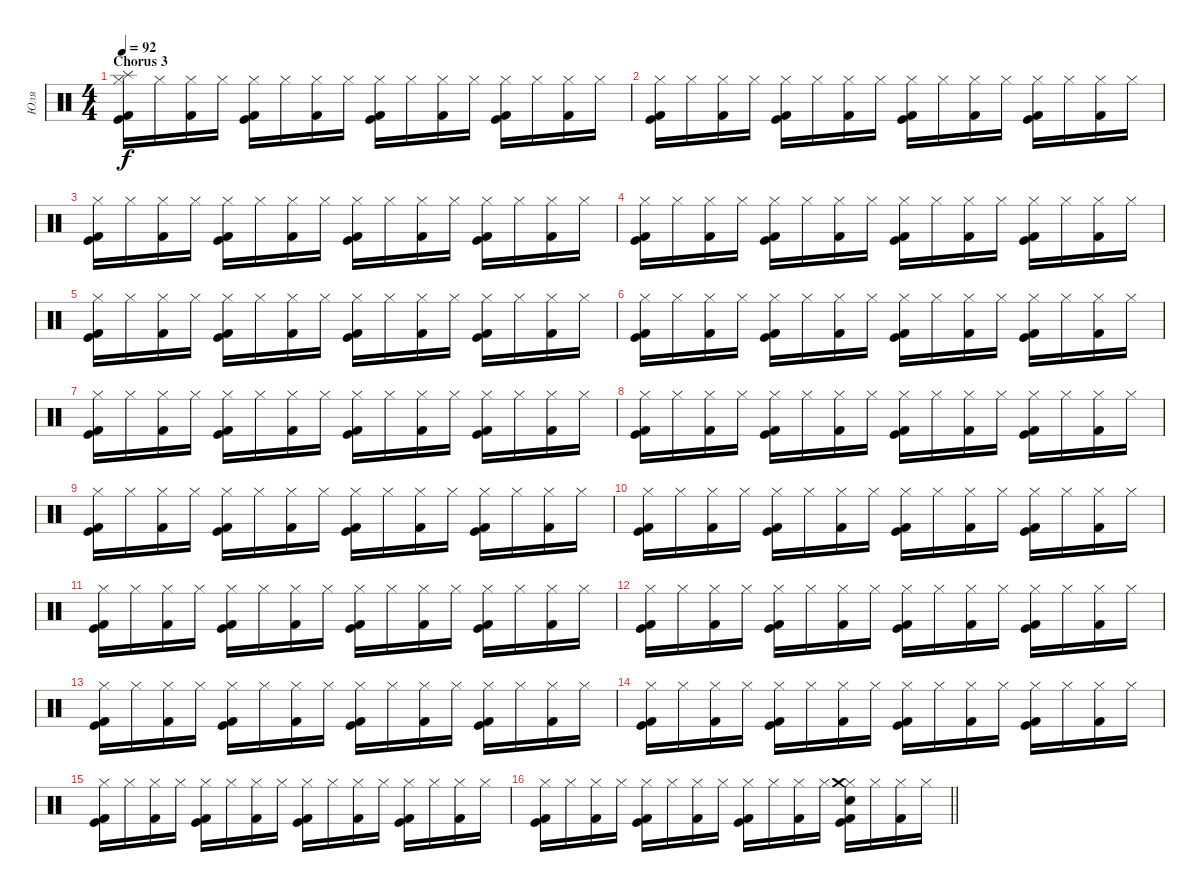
\track ("Юля" "Юля") {instrument percussion}
\staff {score}
\articulation defaults
\ts (4 4)
\section ("" "Chorus 3")
\tempo 92
\clef neutral
\ks c
("Hi-Hat (closed)" "Splash (hit)" "Kick (hit)" "Kick (hit) 2").16{dy f} "Hi-Hat (closed)".16 ("Hi-Hat (closed)" "Kick (hit) 2").16 "Hi-Hat (closed)".16 ("Hi-Hat (closed)" "Kick (hit)" "Kick (hit) 2").16 "Hi-Hat (closed)".16 ("Hi-Hat (closed)" "Kick (hit) 2").16 "Hi-Hat (closed)".16 ("Hi-Hat (closed)" "Kick (hit)" "Kick (hit) 2").16 "Hi-Hat (closed)".16 ("Hi-Hat (closed)" "Kick (hit) 2").16 "Hi-Hat (closed)".16 ("Hi-Hat (closed)" "Kick (hit)" "Kick (hit) 2").16 "Hi-Hat (closed)".16 ("Hi-Hat (closed)" "Kick (hit) 2").16 "Hi-Hat (closed)".16 |
("Hi-Hat (closed)" "Kick (hit)" "Kick (hit) 2").16 "Hi-Hat (closed)".16 ("Hi-Hat (closed)" "Kick (hit) 2").16 "Hi-Hat (closed)".16 ("Hi-Hat (closed)" "Kick (hit)" "Kick (hit) 2").16 "Hi-Hat (closed)".16 ("Hi-Hat (closed)" "Kick (hit) 2").16 "Hi-Hat (closed)".16 ("Hi-Hat (closed)" "Kick (hit)" "Kick (hit) 2").16 "Hi-Hat (closed)".16 ("Hi-Hat (closed)" "Kick (hit) 2").16 "Hi-Hat (closed)".16 ("Hi-Hat (closed)" "Kick (hit)" "Kick (hit) 2").16 "Hi-Hat (closed)".16 ("Hi-Hat (closed)" "Kick (hit) 2").16 "Hi-Hat (closed)".16 |
("Hi-Hat (closed)" "Kick (hit)" "Kick (hit) 2").16 "Hi-Hat (closed)".16 ("Hi-Hat (closed)" "Kick (hit) 2").16 "Hi-Hat (closed)".16 ("Hi-Hat (closed)" "Kick (hit)" "Kick (hit) 2").16 "Hi-Hat (closed)".16 ("Hi-Hat (closed)" "Kick (hit) 2").16 "Hi-Hat (closed)".16 ("Hi-Hat (closed)" "Kick (hit)" "Kick (hit) 2").16 "Hi-Hat (closed)".16 ("Hi-Hat (closed)" "Kick (hit) 2").16 "Hi-Hat (closed)".16 ("Hi-Hat (closed)" "Kick (hit)" "Kick (hit) 2").16 "Hi-Hat (closed)".16 ("Hi-Hat (closed)" "Kick (hit) 2").16 "Hi-Hat (closed)".16 |
("Hi-Hat (closed)" "Kick (hit)" "Kick (hit) 2").16 "Hi-Hat (closed)".16 ("Hi-Hat (closed)" "Kick (hit) 2").16 "Hi-Hat (closed)".16 ("Hi-Hat (closed)" "Kick (hit)" "Kick (hit) 2").16 "Hi-Hat (closed)".16 ("Hi-Hat (closed)" "Kick (hit) 2").16 "Hi-Hat (closed)".16 ("Hi-Hat (closed)" "Kick (hit)" "Kick (hit) 2").16 "Hi-Hat (closed)".16 ("Hi-Hat (closed)" "Kick (hit) 2").16 "Hi-Hat (closed)".16 ("Hi-Hat (closed)" "Kick (hit)" "Kick (hit) 2").16 "Hi-Hat (closed)".16 ("Hi-Hat (closed)" "Kick (hit) 2").16 "Hi-Hat (closed)".16 |
("Hi-Hat (closed)" "Kick (hit)" "Kick (hit) 2").16 "Hi-Hat (closed)".16 ("Hi-Hat (closed)" "Kick (hit) 2").16 "Hi-Hat (closed)".16 ("Hi-Hat (closed)" "Kick (hit)" "Kick (hit) 2").16 "Hi-Hat (closed)".16 ("Hi-Hat (closed)" "Kick (hit) 2").16 "Hi-Hat (closed)".16 ("Hi-Hat (closed)" "Kick (hit)" "Kick (hit) 2").16 "Hi-Hat (closed)".16 ("Hi-Hat (closed)" "Kick (hit) 2").16 "Hi-Hat (closed)".16 ("Hi-Hat (closed)" "Kick (hit)" "Kick (hit) 2").16 "Hi-Hat (closed)".16 ("Hi-Hat (closed)" "Kick (hit) 2").16 "Hi-Hat (closed)".16 |
("Hi-Hat (closed)" "Kick (hit)" "Kick (hit) 2").16 "Hi-Hat (closed)".16 ("Hi-Hat (closed)" "Kick (hit) 2").16 "Hi-Hat (closed)".16 ("Hi-Hat (closed)" "Kick (hit)" "Kick (hit) 2").16 "Hi-Hat (closed)".16 ("Hi-Hat (closed)" "Kick (hit) 2").16 "Hi-Hat (closed)".16 ("Hi-Hat (closed)" "Kick (hit)" "Kick (hit) 2").16 "Hi-Hat (closed)".16 ("Hi-Hat (closed)" "Kick (hit) 2").16 "Hi-Hat (closed)".16 ("Hi-Hat (closed)" "Kick (hit)" "Kick (hit) 2").16 "Hi-Hat (closed)".16 ("Hi-Hat (closed)" "Kick (hit) 2").16 "Hi-Hat (closed)".16 |
("Hi-Hat (closed)" "Kick (hit)" "Kick (hit) 2").16 "Hi-Hat (closed)".16 ("Hi-Hat (closed)" "Kick (hit) 2").16 "Hi-Hat (closed)".16 ("Hi-Hat (closed)" "Kick (hit)" "Kick (hit) 2").16 "Hi-Hat (closed)".16 ("Hi-Hat (closed)" "Kick (hit) 2").16 "Hi-Hat (closed)".16 ("Hi-Hat (closed)" "Kick (hit)" "Kick (hit) 2").16 "Hi-Hat (closed)".16 ("Hi-Hat (closed)" "Kick (hit) 2").16 "Hi-Hat (closed)".16 ("Hi-Hat (closed)" "Kick (hit)" "Kick (hit) 2").16 "Hi-Hat (closed)".16 ("Hi-Hat (closed)" "Kick (hit) 2").16 "Hi-Hat (closed)".16 |
("Hi-Hat (closed)" "Kick (hit)" "Kick (hit) 2").16 "Hi-Hat (closed)".16 ("Hi-Hat (closed)" "Kick (hit) 2").16 "Hi-Hat (closed)".16 ("Hi-Hat (closed)" "Kick (hit)" "Kick (hit) 2").16 "Hi-Hat (closed)".16 ("Hi-Hat (closed)" "Kick (hit) 2").16 "Hi-Hat (closed)".16 ("Hi-Hat (closed)" "Kick (hit)" "Kick (hit) 2").16 "Hi-Hat (closed)".16 ("Hi-Hat (closed)" "Kick (hit) 2").16 "Hi-Hat (closed)".16 ("Hi-Hat (closed)" "Kick (hit)" "Kick (hit) 2").16 "Hi-Hat (closed)".16 ("Hi-Hat (closed)" "Kick (hit) 2").16 "Hi-Hat (closed)".16 |
("Hi-Hat (closed)" "Kick (hit)" "Kick (hit) 2").16 "Hi-Hat (closed)".16 ("Hi-Hat (closed)" "Kick (hit) 2").16 "Hi-Hat (closed)".16 ("Hi-Hat (closed)" "Kick (hit)" "Kick (hit) 2").16 "Hi-Hat (closed)".16 ("Hi-Hat (closed)" "Kick (hit) 2").16 "Hi-Hat (closed)".16 ("Hi-Hat (closed)" "Kick (hit)" "Kick (hit) 2").16 "Hi-Hat (closed)".16 ("Hi-Hat (closed)" "Kick (hit) 2").16 "Hi-Hat (closed)".16 ("Hi-Hat (closed)" "Kick (hit)" "Kick (hit) 2").16 "Hi-Hat (closed)".16 ("Hi-Hat (closed)" "Kick (hit) 2").16 "Hi-Hat (closed)".16 |
("Hi-Hat (closed)" "Kick (hit)" "Kick (hit) 2").16 "Hi-Hat (closed)".16 ("Hi-Hat (closed)" "Kick (hit) 2").16 "Hi-Hat (closed)".16 ("Hi-Hat (closed)" "Kick (hit)" "Kick (hit) 2").16 "Hi-Hat (closed)".16 ("Hi-Hat (closed)" "Kick (hit) 2").16 "Hi-Hat (closed)".16 ("Hi-Hat (closed)" "Kick (hit)" "Kick (hit) 2").16 "Hi-Hat (closed)".16 ("Hi-Hat (closed)" "Kick (hit) 2").16 "Hi-Hat (closed)".16 ("Hi-Hat (closed)" "Kick (hit)" "Kick (hit) 2").16 "Hi-Hat (closed)".16 ("Hi-Hat (closed)" "Kick (hit) 2").16 "Hi-Hat (closed)".16 |
("Hi-Hat (closed)" "Kick (hit)" "Kick (hit) 2").16 "Hi-Hat (closed)".16 ("Hi-Hat (closed)" "Kick (hit) 2").16 "Hi-Hat (closed)".16 ("Hi-Hat (closed)" "Kick (hit)" "Kick (hit) 2").16 "Hi-Hat (closed)".16 ("Hi-Hat (closed)" "Kick (hit) 2").16 "Hi-Hat (closed)".16 ("Hi-Hat (closed)" "Kick (hit)" "Kick (hit) 2").16 "Hi-Hat (closed)".16 ("Hi-Hat (closed)" "Kick (hit) 2").16 "Hi-Hat (closed)".16 ("Hi-Hat (closed)" "Kick (hit)" "Kick (hit) 2").16 "Hi-Hat (closed)".16 ("Hi-Hat (closed)" "Kick (hit) 2").16 "Hi-Hat (closed)".16 |
("Hi-Hat (closed)" "Kick (hit)" "Kick (hit) 2").16 "Hi-Hat (closed)".16 ("Hi-Hat (closed)" "Kick (hit) 2").16 "Hi-Hat (closed)".16 ("Hi-Hat (closed)" "Kick (hit)" "Kick (hit) 2").16 "Hi-Hat (closed)".16 ("Hi-Hat (closed)" "Kick (hit) 2").16 "Hi-Hat (closed)".16 ("Hi-Hat (closed)" "Kick (hit)" "Kick (hit) 2").16 "Hi-Hat (closed)".16 ("Hi-Hat (closed)" "Kick (hit) 2").16 "Hi-Hat (closed)".16 ("Hi-Hat (closed)" "Kick (hit)" "Kick (hit) 2").16 "Hi-Hat (closed)".16 ("Hi-Hat (closed)" "Kick (hit) 2").16 "Hi-Hat (closed)".16 |
("Hi-Hat (closed)" "Kick (hit)" "Kick (hit) 2").16 "Hi-Hat (closed)".16 ("Hi-Hat (closed)" "Kick (hit) 2").16 "Hi-Hat (closed)".16 ("Hi-Hat (closed)" "Kick (hit)" "Kick (hit) 2").16 "Hi-Hat (closed)".16 ("Hi-Hat (closed)" "Kick (hit) 2").16 "Hi-Hat (closed)".16 ("Hi-Hat (closed)" "Kick (hit)" "Kick (hit) 2").16 "Hi-Hat (closed)".16 ("Hi-Hat (closed)" "Kick (hit) 2").16 "Hi-Hat (closed)".16 ("Hi-Hat (closed)" "Kick (hit)" "Kick (hit) 2").16 "Hi-Hat (closed)".16 ("Hi-Hat (closed)" "Kick (hit) 2").16 "Hi-Hat (closed)".16 |
("Hi-Hat (closed)" "Kick (hit)" "Kick (hit) 2").16 "Hi-Hat (closed)".16 ("Hi-Hat (closed)" "Kick (hit) 2").16 "Hi-Hat (closed)".16 ("Hi-Hat (closed)" "Kick (hit)" "Kick (hit) 2").16 "Hi-Hat (closed)".16 ("Hi-Hat (closed)" "Kick (hit) 2").16 "Hi-Hat (closed)".16 ("Hi-Hat (closed)" "Kick (hit)" "Kick (hit) 2").16 "Hi-Hat (closed)".16 ("Hi-Hat (closed)" "Kick (hit) 2").16 "Hi-Hat (closed)".16 ("Hi-Hat (closed)" "Kick (hit)" "Kick (hit) 2").16 "Hi-Hat (closed)".16 ("Hi-Hat (closed)" "Kick (hit) 2").16 "Hi-Hat (closed)".16 |
("Hi-Hat (closed)" "Kick (hit)" "Kick (hit) 2").16 "Hi-Hat (closed)".16 ("Hi-Hat (closed)" "Kick (hit) 2").16 "Hi-Hat (closed)".16 ("Hi-Hat (closed)" "Kick (hit)" "Kick (hit) 2").16 "Hi-Hat (closed)".16 ("Hi-Hat (closed)" "Kick (hit) 2").16 "Hi-Hat (closed)".16 ("Hi-Hat (closed)" "Kick (hit)" "Kick (hit) 2").16 "Hi-Hat (closed)".16 ("Hi-Hat (closed)" "Kick (hit) 2").16 "Hi-Hat (closed)".16 ("Hi-Hat (closed)" "Kick (hit)" "Kick (hit) 2").16 "Hi-Hat (closed)".16 ("Hi-Hat (closed)" "Kick (hit) 2").16 "Hi-Hat (closed)".16 |
\barLineRight lightlight
("Hi-Hat (closed)" "Kick (hit)" "Kick (hit) 2").16 "Hi-Hat (closed)".16 ("Hi-Hat (closed)" "Kick (hit) 2").16 "Hi-Hat (closed)".16 ("Hi-Hat (closed)" "Kick (hit)" "Kick (hit) 2").16 "Hi-Hat (closed)".16 ("Hi-Hat (closed)" "Kick (hit) 2").16 "Hi-Hat (closed)".16 ("Hi-Hat (closed)" "Kick (hit)" "Kick (hit) 2").16 "Hi-Hat (closed)".16 ("Hi-Hat (closed)" "Kick (hit) 2").16 "Hi-Hat (closed)".16 ("Hi-Hat (closed)" "Crash medium (hit)" "Snare (hit) 2" "Kick (hit)" "Kick (hit) 2").16 "Hi-Hat (closed)".16 ("Hi-Hat (closed)" "Kick (hit) 2").16 "Hi-Hat (closed)".16
